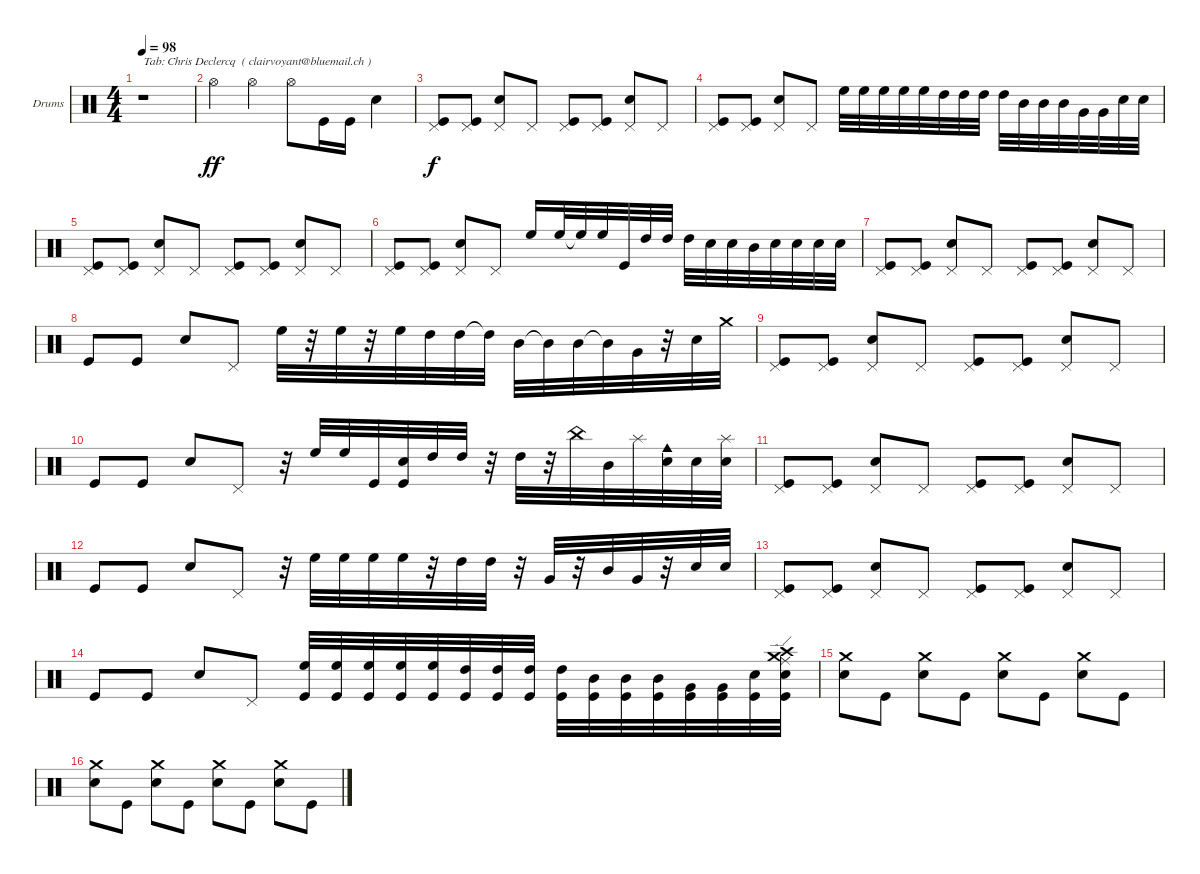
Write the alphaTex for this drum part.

\bracketExtendMode groupsimilarinstruments
\firstSystemTrackNameOrientation horizontal
\otherSystemsTrackNameOrientation horizontal
\track ("Drumkit" "Drums") {instrument percussion}
\staff {score}
\articulation defaults
\ts (4 4)
\tempo 98
\clef neutral
\ks c
r.1{txt "Tab: Chris Declercq  ( clairvoyant@bluemail.ch )" dy ff} |
"Hi-Hat (open)".4 "Hi-Hat (open)".4 "Hi-Hat (open)".8 "Kick (hit)".16 "Kick (hit)".16 "Snare (hit) 2".4 |
("Pedal Hi-Hat (hit)" "Kick (hit)").8{dy f} ("Pedal Hi-Hat (hit)" "Kick (hit)").8 ("Pedal Hi-Hat (hit)" "Snare (hit) 2").8 "Pedal Hi-Hat (hit)".8 ("Pedal Hi-Hat (hit)" "Kick (hit)").8 ("Pedal Hi-Hat (hit)" "Kick (hit)").8 ("Pedal Hi-Hat (hit)" "Snare (hit) 2").8 "Pedal Hi-Hat (hit)".8 |
("Pedal Hi-Hat (hit)" "Kick (hit)").8 ("Pedal Hi-Hat (hit)" "Kick (hit)").8 ("Pedal Hi-Hat (hit)" "Snare (hit) 2").8 "Pedal Hi-Hat (hit)".8 "High Floor Tom (hit)".32 "High Floor Tom (hit)".32 "High Floor Tom (hit)".32 "High Floor Tom (hit)".32 "High Floor Tom (hit)".32 "High Tom (hit)".32 "High Tom (hit)".32 "High Tom (hit)".32 "High Tom (hit)".32 "Mid Tom (hit)".32 "Mid Tom (hit)".32 "Mid Tom (hit)".32 "Very Low Tom (hit)".32 "Very Low Tom (hit)".32 "Snare (hit) 2".32 "Snare (hit) 2".32 |
("Pedal Hi-Hat (hit)" "Kick (hit)").8 ("Pedal Hi-Hat (hit)" "Kick (hit)").8 ("Pedal Hi-Hat (hit)" "Snare (hit) 2").8 "Pedal Hi-Hat (hit)".8 ("Pedal Hi-Hat (hit)" "Kick (hit)").8 ("Pedal Hi-Hat (hit)" "Kick (hit)").8 ("Pedal Hi-Hat (hit)" "Snare (hit) 2").8 "Pedal Hi-Hat (hit)".8 |
("Pedal Hi-Hat (hit)" "Kick (hit)").8 ("Pedal Hi-Hat (hit)" "Kick (hit)").8 ("Pedal Hi-Hat (hit)" "Snare (hit) 2").8 "Pedal Hi-Hat (hit)".8 "High Floor Tom (hit)".16 "High Floor Tom (hit)".32 "High Floor Tom (hit)"{t}.32 "High Floor Tom (hit)".32 "Kick (hit)".32 "High Tom (hit)".32 "High Tom (hit)".32 "High Tom (hit)".32 "Snare (hit) 2".32 "Snare (hit) 2".32 "Mid Tom (hit)".32 "Snare (hit) 2".32 "Snare (hit) 2".32 "Snare (hit) 2".32 "Snare (hit) 2".32 |
("Pedal Hi-Hat (hit)" "Kick (hit)").8 ("Pedal Hi-Hat (hit)" "Kick (hit)").8 ("Pedal Hi-Hat (hit)" "Snare (hit) 2").8 "Pedal Hi-Hat (hit)".8 ("Pedal Hi-Hat (hit)" "Kick (hit)").8 ("Pedal Hi-Hat (hit)" "Kick (hit)").8 ("Pedal Hi-Hat (hit)" "Snare (hit) 2").8 "Pedal Hi-Hat (hit)".8 |
"Kick (hit)".8 "Kick (hit)".8 "Snare (hit) 2".8 "Pedal Hi-Hat (hit)".8 "High Floor Tom (hit)".32 r.32 "High Floor Tom (hit)".32 r.32 "High Floor Tom (hit)".32 "High Tom (hit)".32 "High Tom (hit)".32 "High Tom (hit)"{t}.32 "Mid Tom (hit)".32 "Mid Tom (hit)"{t}.32 "Mid Tom (hit)".32 "Mid Tom (hit)"{t}.32 "Very Low Tom (hit)".32 r.32 "Snare (hit) 2".32 "Crash medium (hit)".32 |
("Pedal Hi-Hat (hit)" "Kick (hit)").8 ("Pedal Hi-Hat (hit)" "Kick (hit)").8 ("Pedal Hi-Hat (hit)" "Snare (hit) 2").8 "Pedal Hi-Hat (hit)".8 ("Pedal Hi-Hat (hit)" "Kick (hit)").8 ("Pedal Hi-Hat (hit)" "Kick (hit)").8 ("Pedal Hi-Hat (hit)" "Snare (hit) 2").8 "Pedal Hi-Hat (hit)".8 |
"Kick (hit)".8 "Kick (hit)".8 "Snare (hit) 2".8 "Pedal Hi-Hat (hit)".8 r.32 "High Floor Tom (hit)".32 "High Floor Tom (hit)".32 "Kick (hit)".32 ("Snare (hit) 2" "Kick (hit)").32 "High Tom (hit)".32 "High Tom (hit)".32 r.32 "High Tom (hit)".32 r.32 "China (hit)".32 "Mid Tom (hit)".32 "Splash (hit)".32 ("Snare (hit) 2" "Cowbell medium (hit)").32 "Snare (hit) 2".32 ("Splash (hit)" "Snare (hit) 2").32 |
("Pedal Hi-Hat (hit)" "Kick (hit)").8 ("Pedal Hi-Hat (hit)" "Kick (hit)").8 ("Pedal Hi-Hat (hit)" "Snare (hit) 2").8 "Pedal Hi-Hat (hit)".8 ("Pedal Hi-Hat (hit)" "Kick (hit)").8 ("Pedal Hi-Hat (hit)" "Kick (hit)").8 ("Pedal Hi-Hat (hit)" "Snare (hit) 2").8 "Pedal Hi-Hat (hit)".8 |
"Kick (hit)".8 "Kick (hit)".8 "Snare (hit) 2".8 "Pedal Hi-Hat (hit)".8 r.32 "High Floor Tom (hit)".32 "High Floor Tom (hit)".32 "High Floor Tom (hit)".32 "High Floor Tom (hit)".32 r.32 "High Tom (hit)".32 "High Tom (hit)".32 r.32 "Very Low Tom (hit)".32 r.32 "Mid Tom (hit)".32 "Very Low Tom (hit)".32 r.32 "Snare (hit) 2".32 "Snare (hit) 2".32 |
("Pedal Hi-Hat (hit)" "Kick (hit)").8 ("Pedal Hi-Hat (hit)" "Kick (hit)").8 ("Pedal Hi-Hat (hit)" "Snare (hit) 2").8 "Pedal Hi-Hat (hit)".8 ("Pedal Hi-Hat (hit)" "Kick (hit)").8 ("Pedal Hi-Hat (hit)" "Kick (hit)").8 ("Pedal Hi-Hat (hit)" "Snare (hit) 2").8 "Pedal Hi-Hat (hit)".8 |
"Kick (hit)".8 "Kick (hit)".8 "Snare (hit) 2".8 "Pedal Hi-Hat (hit)".8 ("Kick (hit)" "High Floor Tom (hit)").32 ("Kick (hit)" "High Floor Tom (hit)").32 ("Kick (hit)" "High Floor Tom (hit)").32 ("Kick (hit)" "High Floor Tom (hit)").32 ("Kick (hit)" "High Floor Tom (hit)").32 ("Kick (hit)" "High Tom (hit)").32 ("Kick (hit)" "High Tom (hit)").32 ("Kick (hit)" "High Tom (hit)").32 ("Kick (hit)" "High Tom (hit)").32 ("Kick (hit)" "Mid Tom (hit)").32 ("Kick (hit)" "Mid Tom (hit)").32 ("Kick (hit)" "Mid Tom (hit)").32 ("Kick (hit)" "Very Low Tom (hit)").32 ("Kick (hit)" "Very Low Tom (hit)").32 ("Kick (hit)" "Snare (hit) 2").32 ("Kick (hit)" "Snare (hit) 2" "Crash medium (hit)" "Crash high (hit)" "Ride (edge)").32 |
("Crash medium (hit)" "Snare (hit) 2").8 "Kick (hit)".8 ("Crash medium (hit)" "Snare (hit) 2").8 "Kick (hit)".8 ("Crash medium (hit)" "Snare (hit) 2").8 "Kick (hit)".8 ("Crash medium (hit)" "Snare (hit) 2").8 "Kick (hit)".8 |
("Crash medium (hit)" "Snare (hit) 2").8 "Kick (hit)".8 ("Crash medium (hit)" "Snare (hit) 2").8 "Kick (hit)".8 ("Crash medium (hit)" "Snare (hit) 2").8 "Kick (hit)".8 ("Crash medium (hit)" "Snare (hit) 2").8 "Kick (hit)".8
